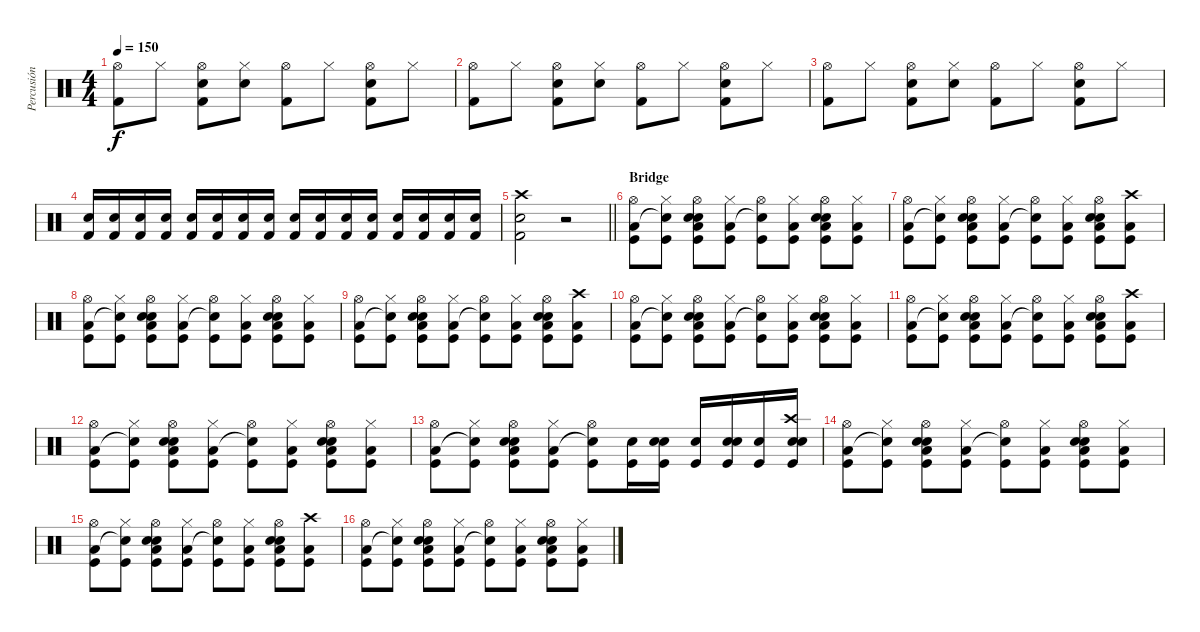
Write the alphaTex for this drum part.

\track ("Percusión" "Percusión") {instrument percussion}
\staff {score}
\articulation defaults
\ts (4 4)
\tempo 150
\clef neutral
\ks c
("Hi-Hat (open)" "Kick (hit) 2").8{dy f} "Hi-Hat (closed)".8 ("Hi-Hat (open)" "Hand Clap (hit)" "Kick (hit) 2").8 ("Hi-Hat (closed)" "Hand Clap (hit)").8 ("Hi-Hat (open)" "Kick (hit) 2").8 "Hi-Hat (closed)".8 ("Hi-Hat (open)" "Hand Clap (hit)" "Kick (hit) 2").8 "Hi-Hat (closed)".8 |
("Hi-Hat (open)" "Kick (hit) 2").8 "Hi-Hat (closed)".8 ("Hi-Hat (open)" "Hand Clap (hit)" "Kick (hit) 2").8 ("Hi-Hat (closed)" "Hand Clap (hit)").8 ("Hi-Hat (open)" "Kick (hit) 2").8 "Hi-Hat (closed)".8 ("Hi-Hat (open)" "Hand Clap (hit)" "Kick (hit) 2").8 "Hi-Hat (closed)".8 |
("Hi-Hat (open)" "Kick (hit) 2").8 "Hi-Hat (closed)".8 ("Hi-Hat (open)" "Hand Clap (hit)" "Kick (hit) 2").8 ("Hi-Hat (closed)" "Hand Clap (hit)").8 ("Hi-Hat (open)" "Kick (hit) 2").8 "Hi-Hat (closed)".8 ("Hi-Hat (open)" "Hand Clap (hit)" "Kick (hit) 2").8 "Hi-Hat (closed)".8 |
("Electric Snare (hit)" "Kick (hit) 2").16 ("Electric Snare (hit)" "Kick (hit) 2").16 ("Electric Snare (hit)" "Kick (hit) 2").16 ("Electric Snare (hit)" "Kick (hit) 2").16 ("Electric Snare (hit)" "Kick (hit) 2").16 ("Electric Snare (hit)" "Kick (hit) 2").16 ("Electric Snare (hit)" "Kick (hit) 2").16 ("Electric Snare (hit)" "Kick (hit) 2").16 ("Electric Snare (hit)" "Kick (hit) 2").16 ("Electric Snare (hit)" "Kick (hit) 2").16 ("Electric Snare (hit)" "Kick (hit) 2").16 ("Electric Snare (hit)" "Kick (hit) 2").16 ("Electric Snare (hit)" "Kick (hit) 2").16 ("Electric Snare (hit)" "Kick (hit) 2").16 ("Electric Snare (hit)" "Kick (hit) 2").16 ("Electric Snare (hit)" "Kick (hit) 2").16 |
\barLineRight lightlight
("Crash high (hit)" "Electric Snare (hit)" "Kick (hit) 2").2 r.2 |
\section ("" "Bridge")
("Hi-Hat (open)" "Low Floor Tom (hit)" "Kick (hit)").8 ("Hi-Hat (closed)" "Snare (hit)"{t} "Kick (hit)").8 ("Hi-Hat (open)" "Electric Snare (hit)" "Hand Clap (hit)" "Low Floor Tom (hit)" "Kick (hit)").8 ("Hi-Hat (closed)" "Low Floor Tom (hit)" "Kick (hit)").8 ("Hi-Hat (open)" "Snare (hit)"{t} "Kick (hit)").8 ("Hi-Hat (closed)" "Low Floor Tom (hit)" "Kick (hit)").8 ("Hi-Hat (open)" "Electric Snare (hit)" "Hand Clap (hit)" "Low Floor Tom (hit)" "Kick (hit)").8 ("Hi-Hat (closed)" "Low Floor Tom (hit)" "Kick (hit)").8 |
("Hi-Hat (open)" "Low Floor Tom (hit)" "Kick (hit)").8 ("Hi-Hat (closed)" "Snare (hit)"{t} "Kick (hit)").8 ("Hi-Hat (open)" "Electric Snare (hit)" "Hand Clap (hit)" "Low Floor Tom (hit)" "Kick (hit)").8 ("Hi-Hat (closed)" "Low Floor Tom (hit)" "Kick (hit)").8 ("Hi-Hat (open)" "Snare (hit)"{t} "Kick (hit)").8 ("Hi-Hat (closed)" "Low Floor Tom (hit)" "Kick (hit)").8 ("Hi-Hat (open)" "Electric Snare (hit)" "Hand Clap (hit)" "Low Floor Tom (hit)" "Kick (hit)").8 ("Crash high (hit)" "Low Floor Tom (hit)" "Kick (hit)").8 |
("Hi-Hat (open)" "Low Floor Tom (hit)" "Kick (hit)").8 ("Hi-Hat (closed)" "Snare (hit)"{t} "Kick (hit)").8 ("Hi-Hat (open)" "Electric Snare (hit)" "Hand Clap (hit)" "Low Floor Tom (hit)" "Kick (hit)").8 ("Hi-Hat (closed)" "Low Floor Tom (hit)" "Kick (hit)").8 ("Hi-Hat (open)" "Snare (hit)"{t} "Kick (hit)").8 ("Hi-Hat (closed)" "Low Floor Tom (hit)" "Kick (hit)").8 ("Hi-Hat (open)" "Electric Snare (hit)" "Hand Clap (hit)" "Low Floor Tom (hit)" "Kick (hit)").8 ("Hi-Hat (closed)" "Low Floor Tom (hit)" "Kick (hit)").8 |
("Hi-Hat (open)" "Low Floor Tom (hit)" "Kick (hit)").8 ("Hi-Hat (closed)" "Snare (hit)"{t} "Kick (hit)").8 ("Hi-Hat (open)" "Electric Snare (hit)" "Hand Clap (hit)" "Low Floor Tom (hit)" "Kick (hit)").8 ("Hi-Hat (closed)" "Low Floor Tom (hit)" "Kick (hit)").8 ("Hi-Hat (open)" "Snare (hit)"{t} "Kick (hit)").8 ("Hi-Hat (closed)" "Low Floor Tom (hit)" "Kick (hit)").8 ("Hi-Hat (open)" "Electric Snare (hit)" "Hand Clap (hit)" "Low Floor Tom (hit)" "Kick (hit)").8 ("Crash high (hit)" "Low Floor Tom (hit)" "Kick (hit)").8 |
("Hi-Hat (open)" "Low Floor Tom (hit)" "Kick (hit)").8 ("Hi-Hat (closed)" "Snare (hit)"{t} "Kick (hit)").8 ("Hi-Hat (open)" "Electric Snare (hit)" "Hand Clap (hit)" "Low Floor Tom (hit)" "Kick (hit)").8 ("Hi-Hat (closed)" "Low Floor Tom (hit)" "Kick (hit)").8 ("Hi-Hat (open)" "Snare (hit)"{t} "Kick (hit)").8 ("Hi-Hat (closed)" "Low Floor Tom (hit)" "Kick (hit)").8 ("Hi-Hat (open)" "Electric Snare (hit)" "Hand Clap (hit)" "Low Floor Tom (hit)" "Kick (hit)").8 ("Hi-Hat (closed)" "Low Floor Tom (hit)" "Kick (hit)").8 |
("Hi-Hat (open)" "Low Floor Tom (hit)" "Kick (hit)").8 ("Hi-Hat (closed)" "Snare (hit)"{t} "Kick (hit)").8 ("Hi-Hat (open)" "Electric Snare (hit)" "Hand Clap (hit)" "Low Floor Tom (hit)" "Kick (hit)").8 ("Hi-Hat (closed)" "Low Floor Tom (hit)" "Kick (hit)").8 ("Hi-Hat (open)" "Snare (hit)"{t} "Kick (hit)").8 ("Hi-Hat (closed)" "Low Floor Tom (hit)" "Kick (hit)").8 ("Hi-Hat (open)" "Electric Snare (hit)" "Hand Clap (hit)" "Low Floor Tom (hit)" "Kick (hit)").8 ("Crash high (hit)" "Low Floor Tom (hit)" "Kick (hit)").8 |
("Hi-Hat (open)" "Low Floor Tom (hit)" "Kick (hit)").8 ("Hi-Hat (closed)" "Snare (hit)"{t} "Kick (hit)").8 ("Hi-Hat (open)" "Electric Snare (hit)" "Hand Clap (hit)" "Low Floor Tom (hit)" "Kick (hit)").8 ("Hi-Hat (closed)" "Low Floor Tom (hit)" "Kick (hit)").8 ("Hi-Hat (open)" "Snare (hit)"{t} "Kick (hit)").8 ("Hi-Hat (closed)" "Low Floor Tom (hit)" "Kick (hit)").8 ("Hi-Hat (open)" "Electric Snare (hit)" "Hand Clap (hit)" "Low Floor Tom (hit)" "Kick (hit)").8 ("Hi-Hat (closed)" "Low Floor Tom (hit)" "Kick (hit)").8 |
("Hi-Hat (open)" "Low Floor Tom (hit)" "Kick (hit)").8 ("Hi-Hat (closed)" "Snare (hit)"{t} "Kick (hit)").8 ("Hi-Hat (open)" "Electric Snare (hit)" "Hand Clap (hit)" "Low Floor Tom (hit)" "Kick (hit)").8 ("Hi-Hat (closed)" "Low Floor Tom (hit)" "Kick (hit)").8 ("Hi-Hat (open)" "Snare (hit)"{t} "Kick (hit)").8 ("Electric Snare (hit)" "Kick (hit)").16 ("Snare (hit) 2" "Electric Snare (hit)" "Kick (hit)").16 ("Electric Snare (hit)" "Kick (hit)").16 ("Snare (hit) 2" "Electric Snare (hit)" "Kick (hit)").16 ("Electric Snare (hit)" "Kick (hit)").16 ("Crash high (hit)" "Snare (hit) 2" "Electric Snare (hit)" "Kick (hit)").16 |
("Hi-Hat (open)" "Low Floor Tom (hit)" "Kick (hit)").8 ("Hi-Hat (closed)" "Snare (hit)"{t} "Kick (hit)").8 ("Hi-Hat (open)" "Electric Snare (hit)" "Hand Clap (hit)" "Low Floor Tom (hit)" "Kick (hit)").8 ("Hi-Hat (closed)" "Low Floor Tom (hit)" "Kick (hit)").8 ("Hi-Hat (open)" "Snare (hit)"{t} "Kick (hit)").8 ("Hi-Hat (closed)" "Low Floor Tom (hit)" "Kick (hit)").8 ("Hi-Hat (open)" "Electric Snare (hit)" "Hand Clap (hit)" "Low Floor Tom (hit)" "Kick (hit)").8 ("Hi-Hat (closed)" "Low Floor Tom (hit)" "Kick (hit)").8 |
("Hi-Hat (open)" "Low Floor Tom (hit)" "Kick (hit)").8 ("Hi-Hat (closed)" "Snare (hit)"{t} "Kick (hit)").8 ("Hi-Hat (open)" "Electric Snare (hit)" "Hand Clap (hit)" "Low Floor Tom (hit)" "Kick (hit)").8 ("Hi-Hat (closed)" "Low Floor Tom (hit)" "Kick (hit)").8 ("Hi-Hat (open)" "Snare (hit)"{t} "Kick (hit)").8 ("Hi-Hat (closed)" "Low Floor Tom (hit)" "Kick (hit)").8 ("Hi-Hat (open)" "Electric Snare (hit)" "Hand Clap (hit)" "Low Floor Tom (hit)" "Kick (hit)").8 ("Crash high (hit)" "Low Floor Tom (hit)" "Kick (hit)").8 |
("Hi-Hat (open)" "Low Floor Tom (hit)" "Kick (hit)").8 ("Hi-Hat (closed)" "Snare (hit)"{t} "Kick (hit)").8 ("Hi-Hat (open)" "Electric Snare (hit)" "Hand Clap (hit)" "Low Floor Tom (hit)" "Kick (hit)").8 ("Hi-Hat (closed)" "Low Floor Tom (hit)" "Kick (hit)").8 ("Hi-Hat (open)" "Snare (hit)"{t} "Kick (hit)").8 ("Hi-Hat (closed)" "Low Floor Tom (hit)" "Kick (hit)").8 ("Hi-Hat (open)" "Electric Snare (hit)" "Hand Clap (hit)" "Low Floor Tom (hit)" "Kick (hit)").8 ("Hi-Hat (closed)" "Low Floor Tom (hit)" "Kick (hit)").8
